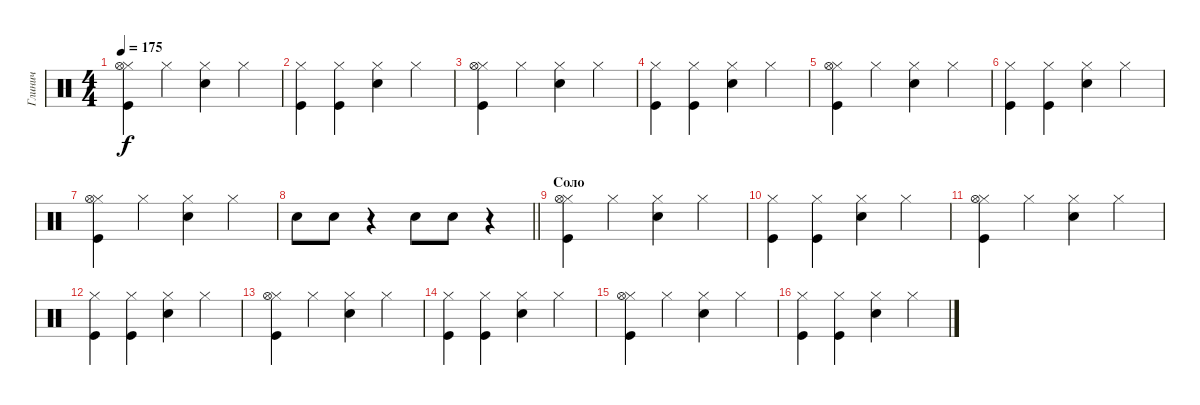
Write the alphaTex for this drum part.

\track ("Глинич" "Глинич") {instrument percussion}
\staff {score}
\articulation defaults
\ts (4 4)
\tempo 175
\clef neutral
\ks c
("Hi-Hat (closed)" "Kick (hit)" "Hi-Hat (open)").4{dy f} "Hi-Hat (closed)".4 ("Hi-Hat (closed)" "Snare (hit) 2").4 "Hi-Hat (closed)".4 |
("Hi-Hat (closed)" "Kick (hit)").4 ("Hi-Hat (closed)" "Kick (hit)").4 ("Hi-Hat (closed)" "Snare (hit) 2").4 "Hi-Hat (closed)".4 |
("Hi-Hat (closed)" "Kick (hit)" "Hi-Hat (open)").4 "Hi-Hat (closed)".4 ("Hi-Hat (closed)" "Snare (hit) 2").4 "Hi-Hat (closed)".4 |
("Hi-Hat (closed)" "Kick (hit)").4 ("Hi-Hat (closed)" "Kick (hit)").4 ("Hi-Hat (closed)" "Snare (hit) 2").4 "Hi-Hat (closed)".4 |
("Hi-Hat (closed)" "Kick (hit)" "Hi-Hat (open)").4 "Hi-Hat (closed)".4 ("Hi-Hat (closed)" "Snare (hit) 2").4 "Hi-Hat (closed)".4 |
("Hi-Hat (closed)" "Kick (hit)").4 ("Hi-Hat (closed)" "Kick (hit)").4 ("Hi-Hat (closed)" "Snare (hit) 2").4 "Hi-Hat (closed)".4 |
("Hi-Hat (closed)" "Kick (hit)" "Hi-Hat (open)").4 "Hi-Hat (closed)".4 ("Hi-Hat (closed)" "Snare (hit) 2").4 "Hi-Hat (closed)".4 |
\barLineRight lightlight "Snare (hit) 2".8 "Snare (hit) 2".8
r.4 "Snare (hit) 2".8 "Snare (hit) 2".8 r.4 |
\section ("" "Соло")
("Hi-Hat (closed)" "Kick (hit)" "Hi-Hat (open)").4 "Hi-Hat (closed)".4 ("Hi-Hat (closed)" "Snare (hit) 2").4 "Hi-Hat (closed)".4 |
("Hi-Hat (closed)" "Kick (hit)").4 ("Hi-Hat (closed)" "Kick (hit)").4 ("Hi-Hat (closed)" "Snare (hit) 2").4 "Hi-Hat (closed)".4 |
("Hi-Hat (closed)" "Kick (hit)" "Hi-Hat (open)").4 "Hi-Hat (closed)".4 ("Hi-Hat (closed)" "Snare (hit) 2").4 "Hi-Hat (closed)".4 |
("Hi-Hat (closed)" "Kick (hit)").4 ("Hi-Hat (closed)" "Kick (hit)").4 ("Hi-Hat (closed)" "Snare (hit) 2").4 "Hi-Hat (closed)".4 |
("Hi-Hat (closed)" "Kick (hit)" "Hi-Hat (open)").4 "Hi-Hat (closed)".4 ("Hi-Hat (closed)" "Snare (hit) 2").4 "Hi-Hat (closed)".4 |
("Hi-Hat (closed)" "Kick (hit)").4 ("Hi-Hat (closed)" "Kick (hit)").4 ("Hi-Hat (closed)" "Snare (hit) 2").4 "Hi-Hat (closed)".4 |
("Hi-Hat (closed)" "Kick (hit)" "Hi-Hat (open)").4 "Hi-Hat (closed)".4 ("Hi-Hat (closed)" "Snare (hit) 2").4 "Hi-Hat (closed)".4 |
("Hi-Hat (closed)" "Kick (hit)").4 ("Hi-Hat (closed)" "Kick (hit)").4 ("Hi-Hat (closed)" "Snare (hit) 2").4 "Hi-Hat (closed)".4
